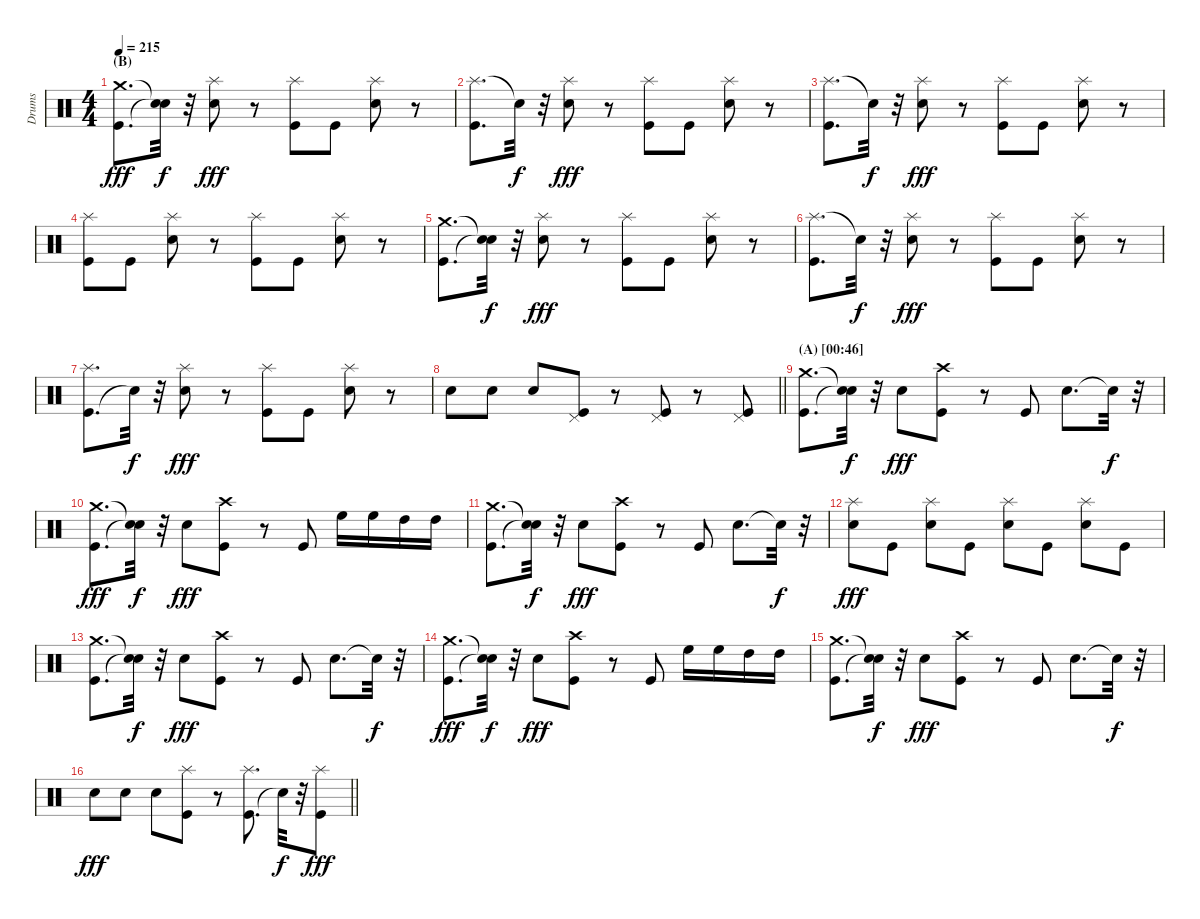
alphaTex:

\track ("Drums" "Drums") {instrument percussion}
\staff {score}
\articulation defaults
\ts (4 4)
\section ("" "(B)")
\tempo 215
\clef neutral
\ks c
("Kick (hit)" "Crash medium (hit)").8{d dy fff} ("Snare (hit)"{t} "Snare (hit)"{t}).32{dy f} r.32 ("Splash (hit)" "Electric Snare (hit)").8{dy fff} r.8 ("Kick (hit)" "Splash (hit)").8 "Kick (hit)".8 ("Electric Snare (hit)" "Splash (hit)").8 r.8 |
("Splash (hit)" "Kick (hit)").8{d} "Snare (hit)"{t}.32{dy f} r.32 ("Splash (hit)" "Electric Snare (hit)").8{dy fff} r.8 ("Kick (hit)" "Splash (hit)").8 "Kick (hit)".8 ("Electric Snare (hit)" "Splash (hit)").8 r.8 |
("Splash (hit)" "Kick (hit)").8{d} "Snare (hit)"{t}.32{dy f} r.32 ("Splash (hit)" "Electric Snare (hit)").8{dy fff} r.8 ("Kick (hit)" "Splash (hit)").8 "Kick (hit)".8 ("Electric Snare (hit)" "Splash (hit)").8 r.8 |
("Splash (hit)" "Kick (hit)").8 "Kick (hit)".8 ("Splash (hit)" "Electric Snare (hit)").8 r.8 ("Kick (hit)" "Splash (hit)").8 "Kick (hit)".8 ("Electric Snare (hit)" "Splash (hit)").8 r.8 |
("Kick (hit)" "Crash medium (hit)").8{d} ("Snare (hit)"{t} "Snare (hit)"{t}).32{dy f} r.32 ("Splash (hit)" "Electric Snare (hit)").8{dy fff} r.8 ("Kick (hit)" "Splash (hit)").8 "Kick (hit)".8 ("Splash (hit)" "Electric Snare (hit)").8 r.8 |
("Splash (hit)" "Kick (hit)").8{d} "Snare (hit)"{t}.32{dy f} r.32 ("Splash (hit)" "Electric Snare (hit)").8{dy fff} r.8 ("Kick (hit)" "Splash (hit)").8 "Kick (hit)".8 ("Electric Snare (hit)" "Splash (hit)").8 r.8 |
("Kick (hit)" "Splash (hit)").8{d} "Snare (hit)"{t}.32{dy f} r.32 ("Electric Snare (hit)" "Splash (hit)").8{dy fff} r.8 ("Kick (hit)" "Splash (hit)").8 "Kick (hit)".8 ("Electric Snare (hit)" "Splash (hit)").8 r.8 |
\barLineRight lightlight "Electric Snare (hit)".8 "Electric Snare (hit)".8 "Electric Snare (hit)".8
("Pedal Hi-Hat (hit)" "Kick (hit)").8 r.8 ("Pedal Hi-Hat (hit)" "Kick (hit)").8 r.8 ("Pedal Hi-Hat (hit)" "Kick (hit)").8 |
\section ("" "(A) [00:46]")
("Kick (hit)" "Crash medium (hit)").8{d} ("Snare (hit)"{t} "Snare (hit)"{t}).32{dy f} r.32 "Electric Snare (hit)".8{dy fff} ("Crash high (hit)" "Kick (hit)").8 r.8 "Kick (hit)".8 "Electric Snare (hit)".8{d} "Snare (hit)"{t}.32{dy f} r.32 |
("Kick (hit)" "Crash medium (hit)").8{d dy fff} ("Snare (hit)"{t} "Snare (hit)"{t}).32{dy f} r.32 "Electric Snare (hit)".8{dy fff} ("Crash high (hit)" "Kick (hit)").8 r.8 "Kick (hit)".8 "High Floor Tom (hit)".16 "High Floor Tom (hit)".16 "High Tom (hit)".16 "High Tom (hit)".16 |
("Kick (hit)" "Crash medium (hit)").8{d} ("Snare (hit)"{t} "Snare (hit)"{t}).32{dy f} r.32 "Electric Snare (hit)".8{dy fff} ("Crash high (hit)" "Kick (hit)").8 r.8 "Kick (hit)".8 "Electric Snare (hit)".8{d} "Snare (hit)"{t}.32{dy f} r.32 |
("Splash (hit)" "Electric Snare (hit)").8{dy fff} "Kick (hit)".8 ("Splash (hit)" "Electric Snare (hit)").8 "Kick (hit)".8 ("Splash (hit)" "Electric Snare (hit)").8 "Kick (hit)".8 ("Splash (hit)" "Electric Snare (hit)").8 "Kick (hit)".8 |
("Kick (hit)" "Crash medium (hit)").8{d} ("Snare (hit)"{t} "Snare (hit)"{t}).32{dy f} r.32 "Electric Snare (hit)".8{dy fff} ("Crash high (hit)" "Kick (hit)").8 r.8 "Kick (hit)".8 "Electric Snare (hit)".8{d} "Snare (hit)"{t}.32{dy f} r.32 |
("Kick (hit)" "Crash medium (hit)").8{d dy fff} ("Snare (hit)"{t} "Snare (hit)"{t}).32{dy f} r.32 "Electric Snare (hit)".8{dy fff} ("Crash high (hit)" "Kick (hit)").8 r.8 "Kick (hit)".8 "High Floor Tom (hit)".16 "High Floor Tom (hit)".16 "High Tom (hit)".16 "High Tom (hit)".16 |
("Kick (hit)" "Crash medium (hit)").8{d} ("Snare (hit)"{t} "Snare (hit)"{t}).32{dy f} r.32 "Electric Snare (hit)".8{dy fff} ("Crash high (hit)" "Kick (hit)").8 r.8 "Kick (hit)".8 "Electric Snare (hit)".8{d} "Snare (hit)"{t}.32{dy f} r.32 |
\barLineRight lightlight "Snare (hit) 2".8{dy fff} "Snare (hit) 2".8 "Snare (hit) 2".8
("Kick (hit)" "Splash (hit)").8 r.8 ("Kick (hit)" "Splash (hit)").8{d} "Snare (hit)"{t}.32{dy f} r.32 ("Kick (hit)" "Splash (hit)").8{dy fff}
